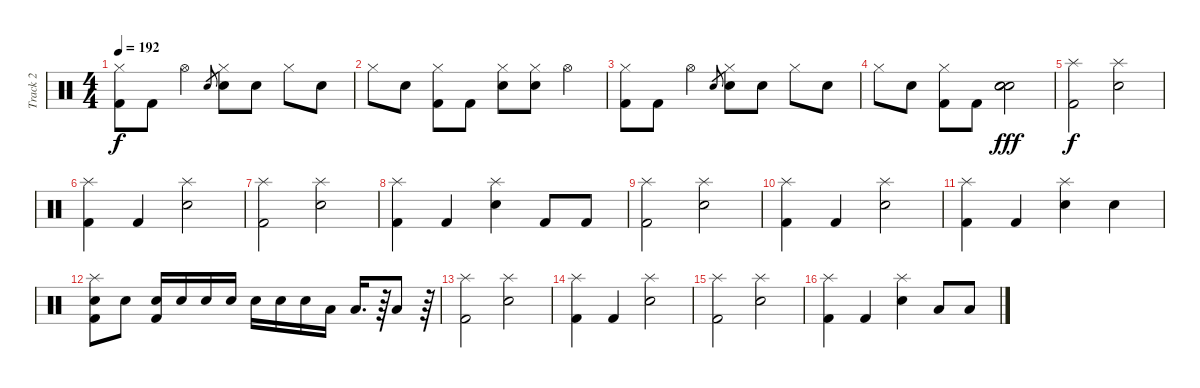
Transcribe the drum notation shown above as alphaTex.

\track ("Track 2" "Track 2") {instrument percussion}
\staff {score}
\articulation defaults
\ts (4 4)
\tempo 192
\clef neutral
\ks c
("Hi-Hat (closed)" "Kick (hit) 2").8{dy f} "Kick (hit) 2".8 "Hi-Hat (open)".4 "Electric Snare (hit)".8{gr} ("Hi-Hat (closed)" "Electric Snare (hit)").8 "Electric Snare (hit)".8 "Hi-Hat (closed)".8 "Electric Snare (hit)".8 |
"Hi-Hat (closed)".8 "Electric Snare (hit)".8 ("Hi-Hat (closed)" "Kick (hit) 2").8 "Kick (hit) 2".8 ("Hi-Hat (closed)" "Electric Snare (hit)").8 ("Hi-Hat (closed)" "Electric Snare (hit)").8 "Hi-Hat (open)".4 |
("Hi-Hat (closed)" "Kick (hit) 2").8 "Kick (hit) 2".8 "Hi-Hat (open)".4 "Electric Snare (hit)".8{gr} ("Hi-Hat (closed)" "Electric Snare (hit)").8 "Electric Snare (hit)".8 "Hi-Hat (closed)".8 "Electric Snare (hit)".8 |
"Hi-Hat (closed)".8 "Electric Snare (hit)".8 ("Hi-Hat (closed)" "Kick (hit) 2").8 "Kick (hit) 2".8 ("Electric Snare (hit)" "Electric Snare (hit)" "Electric Snare (hit)").2{dy fff} |
("Splash (hit)" "Kick (hit) 2").2{dy f} ("Splash (hit)" "Electric Snare (hit)").2 |
("Splash (hit)" "Kick (hit) 2").4 "Kick (hit) 2".4 ("Splash (hit)" "Electric Snare (hit)").2 |
("Splash (hit)" "Kick (hit) 2").2 ("Splash (hit)" "Electric Snare (hit)").2 |
("Splash (hit)" "Kick (hit) 2").4 "Kick (hit) 2".4 ("Splash (hit)" "Electric Snare (hit)").4 "Kick (hit) 2".8 "Kick (hit) 2".8 |
("Splash (hit)" "Kick (hit) 2").2 ("Splash (hit)" "Electric Snare (hit)").2 |
("Splash (hit)" "Kick (hit) 2").4 "Kick (hit) 2".4 ("Splash (hit)" "Electric Snare (hit)").2 |
("Splash (hit)" "Kick (hit) 2").4 "Kick (hit) 2".4 ("Splash (hit)" "Electric Snare (hit)").4 "Electric Snare (hit)".4 |
("Splash (hit)" "Electric Snare (hit)" "Kick (hit) 2").8 "Electric Snare (hit)".8 ("Electric Snare (hit)" "Kick (hit) 2").16 "Electric Snare (hit)".16 "Electric Snare (hit)".16 "Electric Snare (hit)".16 "Electric Snare (hit)".16 "Electric Snare (hit)".16 "Electric Snare (hit)".16 "Low Tom (hit)".16 "Low Tom (hit)".16{d} r.64 "Low Tom (hit)".8 r.64 |
("Splash (hit)" "Kick (hit) 2").2 ("Splash (hit)" "Electric Snare (hit)").2 |
("Splash (hit)" "Kick (hit) 2").4 "Kick (hit) 2".4 ("Splash (hit)" "Electric Snare (hit)").2 |
("Splash (hit)" "Kick (hit) 2").2 ("Splash (hit)" "Electric Snare (hit)").2 |
("Splash (hit)" "Kick (hit) 2").4 "Kick (hit) 2".4 ("Splash (hit)" "Electric Snare (hit)").4 "Low Tom (hit)".8 "Low Tom (hit)".8
